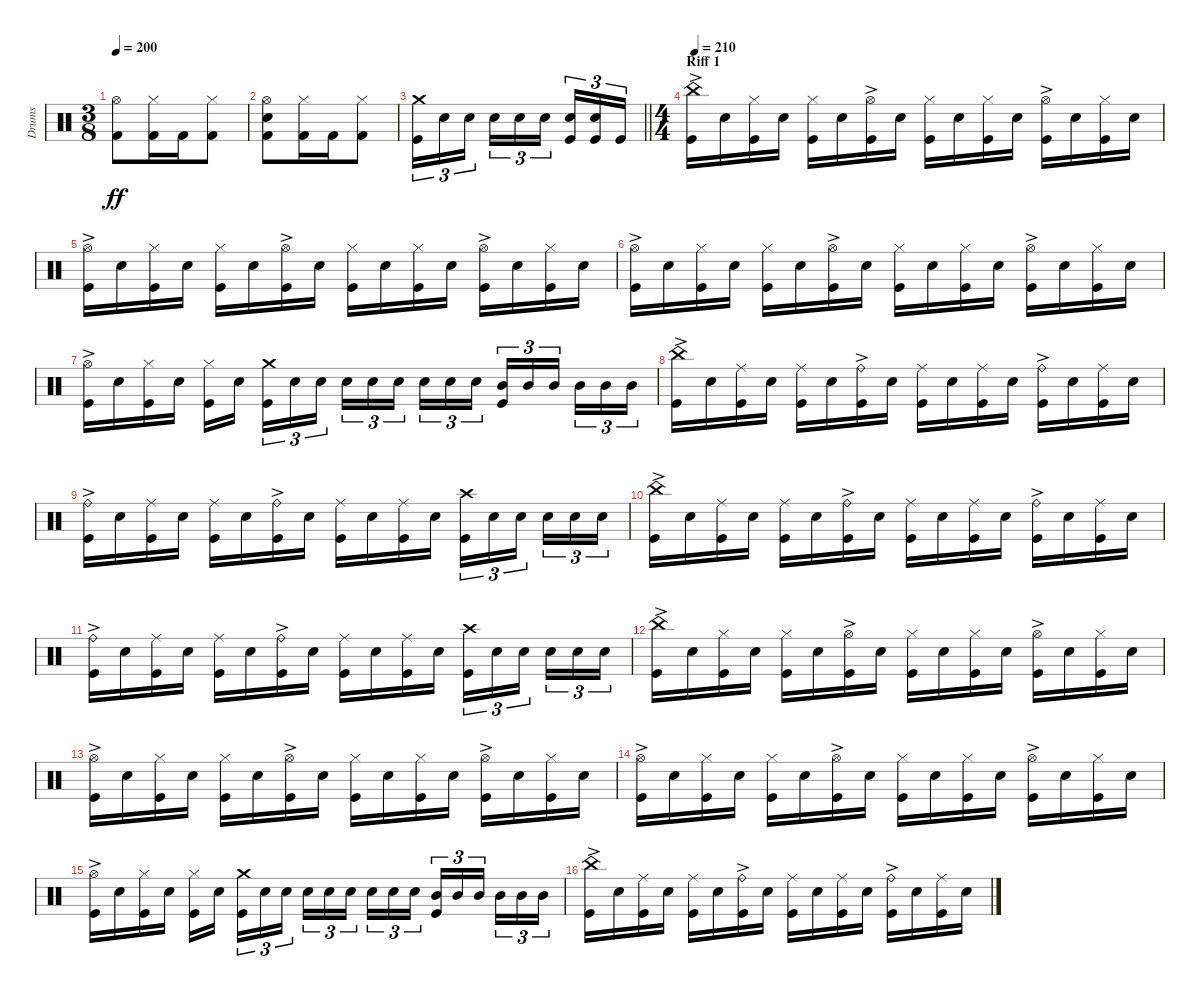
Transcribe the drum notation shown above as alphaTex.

\track ("Drums" "Drums") {instrument percussion}
\staff {score}
\articulation defaults
\ts (3 8)
\tempo 200
\clef neutral
\ks c
("Hi-Hat (open)" "Kick (hit) 2").8{dy ff} ("Hi-Hat (closed)" "Kick (hit) 2").16 "Kick (hit) 2".16 ("Hi-Hat (closed)" "Kick (hit) 2").8 |
("Hi-Hat (open)" "Electric Snare (hit)" "Kick (hit) 2").8 ("Hi-Hat (closed)" "Kick (hit) 2").16 "Kick (hit) 2".16 ("Hi-Hat (closed)" "Kick (hit) 2").8 |
\barLineRight lightlight
("Crash medium (hit)" "Kick (hit)").16{tu (3 2)} "Electric Snare (hit)".16{tu (3 2)} "Electric Snare (hit)".16{tu (3 2)} "Electric Snare (hit)".16{tu (3 2)} "Electric Snare (hit)".16{tu (3 2)} "Electric Snare (hit)".16{tu (3 2)} ("Electric Snare (hit)" "Kick (hit)").16{tu (3 2)} ("Electric Snare (hit)" "Kick (hit)").16{tu (3 2)} "Kick (hit)".16{tu (3 2)} |
\ts (4 4)
\section ("" "Riff 1")
\tempo 210
("China (hit)"{ac} "Kick (hit)").16 "Electric Snare (hit)".16 ("Hi-Hat (closed)" "Kick (hit)").16 "Electric Snare (hit)".16 ("Hi-Hat (closed)" "Kick (hit)").16 "Electric Snare (hit)".16 ("Hi-Hat (open)"{ac} "Kick (hit)").16 "Electric Snare (hit)".16 ("Hi-Hat (closed)" "Kick (hit)").16 "Electric Snare (hit)".16 ("Hi-Hat (closed)" "Kick (hit)").16 "Electric Snare (hit)".16 ("Hi-Hat (open)"{ac} "Kick (hit)").16 "Electric Snare (hit)".16 ("Hi-Hat (closed)" "Kick (hit)").16 "Electric Snare (hit)".16 |
("Hi-Hat (open)"{ac} "Kick (hit)").16 "Electric Snare (hit)".16 ("Hi-Hat (closed)" "Kick (hit)").16 "Electric Snare (hit)".16 ("Hi-Hat (closed)" "Kick (hit)").16 "Electric Snare (hit)".16 ("Hi-Hat (open)"{ac} "Kick (hit)").16 "Electric Snare (hit)".16 ("Hi-Hat (closed)" "Kick (hit)").16 "Electric Snare (hit)".16 ("Hi-Hat (closed)" "Kick (hit)").16 "Electric Snare (hit)".16 ("Hi-Hat (open)"{ac} "Kick (hit)").16 "Electric Snare (hit)".16 ("Hi-Hat (closed)" "Kick (hit)").16 "Electric Snare (hit)".16 |
("Hi-Hat (open)"{ac} "Kick (hit)").16 "Electric Snare (hit)".16 ("Hi-Hat (closed)" "Kick (hit)").16 "Electric Snare (hit)".16 ("Hi-Hat (closed)" "Kick (hit)").16 "Electric Snare (hit)".16 ("Hi-Hat (open)"{ac} "Kick (hit)").16 "Electric Snare (hit)".16 ("Hi-Hat (closed)" "Kick (hit)").16 "Electric Snare (hit)".16 ("Hi-Hat (closed)" "Kick (hit)").16 "Electric Snare (hit)".16 ("Hi-Hat (open)"{ac} "Kick (hit)").16 "Electric Snare (hit)".16 ("Hi-Hat (closed)" "Kick (hit)").16 "Electric Snare (hit)".16 |
("Hi-Hat (open)"{ac} "Kick (hit)").16 "Electric Snare (hit)".16 ("Hi-Hat (closed)" "Kick (hit)").16 "Electric Snare (hit)".16 ("Hi-Hat (closed)" "Kick (hit)").16 "Electric Snare (hit)".16{beam splitsecondary} ("Crash medium (hit)" "Kick (hit)").16{tu (3 2)} "Electric Snare (hit)".16{tu (3 2)} "Electric Snare (hit)".16{tu (3 2)} "Electric Snare (hit)".16{tu (3 2)} "Electric Snare (hit)".16{tu (3 2)} "Electric Snare (hit)".16{tu (3 2) beam splitsecondary} "Electric Snare (hit)".16{tu (3 2)} "Electric Snare (hit)".16{tu (3 2)} "Electric Snare (hit)".16{tu (3 2)} ("Mid Tom (hit)" "Kick (hit)").16{tu (3 2)} "Mid Tom (hit)".16{tu (3 2)} "Mid Tom (hit)".16{tu (3 2) beam splitsecondary} "Mid Tom (hit)".16{tu (3 2)} "Mid Tom (hit)".16{tu (3 2)} "Mid Tom (hit)".16{tu (3 2)} |
("China (hit)"{ac} "Kick (hit)").16 "Electric Snare (hit)".16 ("Ride (middle)" "Kick (hit)").16 "Electric Snare (hit)".16 ("Ride (middle)" "Kick (hit)").16 "Electric Snare (hit)".16 ("Ride (bell)"{ac} "Kick (hit)").16 "Electric Snare (hit)".16 ("Ride (middle)" "Kick (hit)").16 "Electric Snare (hit)".16 ("Ride (middle)" "Kick (hit)").16 "Electric Snare (hit)".16 ("Ride (bell)"{ac} "Kick (hit)").16 "Electric Snare (hit)".16 ("Ride (middle)" "Kick (hit)").16 "Electric Snare (hit)".16 |
("Ride (bell)"{ac} "Kick (hit)").16 "Electric Snare (hit)".16 ("Ride (middle)" "Kick (hit)").16 "Electric Snare (hit)".16 ("Ride (middle)" "Kick (hit)").16 "Electric Snare (hit)".16 ("Ride (bell)"{ac} "Kick (hit)").16 "Electric Snare (hit)".16 ("Ride (middle)" "Kick (hit)").16 "Electric Snare (hit)".16 ("Ride (middle)" "Kick (hit)").16 "Electric Snare (hit)".16 ("Crash high (hit)" "Kick (hit)").16{tu (3 2)} "Electric Snare (hit)".16{tu (3 2)} "Electric Snare (hit)".16{tu (3 2) beam splitsecondary} "Electric Snare (hit)".16{tu (3 2)} "Electric Snare (hit)".16{tu (3 2)} "Electric Snare (hit)".16{tu (3 2)} |
("China (hit)"{ac} "Kick (hit)").16 "Electric Snare (hit)".16 ("Ride (middle)" "Kick (hit)").16 "Electric Snare (hit)".16 ("Ride (middle)" "Kick (hit)").16 "Electric Snare (hit)".16 ("Ride (bell)"{ac} "Kick (hit)").16 "Electric Snare (hit)".16 ("Ride (middle)" "Kick (hit)").16 "Electric Snare (hit)".16 ("Ride (middle)" "Kick (hit)").16 "Electric Snare (hit)".16 ("Ride (bell)"{ac} "Kick (hit)").16 "Electric Snare (hit)".16 ("Ride (middle)" "Kick (hit)").16 "Electric Snare (hit)".16 |
("Ride (bell)"{ac} "Kick (hit)").16 "Electric Snare (hit)".16 ("Ride (middle)" "Kick (hit)").16 "Electric Snare (hit)".16 ("Ride (middle)" "Kick (hit)").16 "Electric Snare (hit)".16 ("Ride (bell)"{ac} "Kick (hit)").16 "Electric Snare (hit)".16 ("Ride (middle)" "Kick (hit)").16 "Electric Snare (hit)".16 ("Ride (middle)" "Kick (hit)").16 "Electric Snare (hit)".16 ("Crash high (hit)" "Kick (hit)").16{tu (3 2)} "Electric Snare (hit)".16{tu (3 2)} "Electric Snare (hit)".16{tu (3 2) beam splitsecondary} "Electric Snare (hit)".16{tu (3 2)} "Electric Snare (hit)".16{tu (3 2)} "Electric Snare (hit)".16{tu (3 2)} |
("China (hit)"{ac} "Kick (hit)").16 "Electric Snare (hit)".16 ("Hi-Hat (closed)" "Kick (hit)").16 "Electric Snare (hit)".16 ("Hi-Hat (closed)" "Kick (hit)").16 "Electric Snare (hit)".16 ("Hi-Hat (open)"{ac} "Kick (hit)").16 "Electric Snare (hit)".16 ("Hi-Hat (closed)" "Kick (hit)").16 "Electric Snare (hit)".16 ("Hi-Hat (closed)" "Kick (hit)").16 "Electric Snare (hit)".16 ("Hi-Hat (open)"{ac} "Kick (hit)").16 "Electric Snare (hit)".16 ("Hi-Hat (closed)" "Kick (hit)").16 "Electric Snare (hit)".16 |
("Hi-Hat (open)"{ac} "Kick (hit)").16 "Electric Snare (hit)".16 ("Hi-Hat (closed)" "Kick (hit)").16 "Electric Snare (hit)".16 ("Hi-Hat (closed)" "Kick (hit)").16 "Electric Snare (hit)".16 ("Hi-Hat (open)"{ac} "Kick (hit)").16 "Electric Snare (hit)".16 ("Hi-Hat (closed)" "Kick (hit)").16 "Electric Snare (hit)".16 ("Hi-Hat (closed)" "Kick (hit)").16 "Electric Snare (hit)".16 ("Hi-Hat (open)"{ac} "Kick (hit)").16 "Electric Snare (hit)".16 ("Hi-Hat (closed)" "Kick (hit)").16 "Electric Snare (hit)".16 |
("Hi-Hat (open)"{ac} "Kick (hit)").16 "Electric Snare (hit)".16 ("Hi-Hat (closed)" "Kick (hit)").16 "Electric Snare (hit)".16 ("Hi-Hat (closed)" "Kick (hit)").16 "Electric Snare (hit)".16 ("Hi-Hat (open)"{ac} "Kick (hit)").16 "Electric Snare (hit)".16 ("Hi-Hat (closed)" "Kick (hit)").16 "Electric Snare (hit)".16 ("Hi-Hat (closed)" "Kick (hit)").16 "Electric Snare (hit)".16 ("Hi-Hat (open)"{ac} "Kick (hit)").16 "Electric Snare (hit)".16 ("Hi-Hat (closed)" "Kick (hit)").16 "Electric Snare (hit)".16 |
("Hi-Hat (open)"{ac} "Kick (hit)").16 "Electric Snare (hit)".16 ("Hi-Hat (closed)" "Kick (hit)").16 "Electric Snare (hit)".16 ("Hi-Hat (closed)" "Kick (hit)").16 "Electric Snare (hit)".16{beam splitsecondary} ("Crash medium (hit)" "Kick (hit)").16{tu (3 2)} "Electric Snare (hit)".16{tu (3 2)} "Electric Snare (hit)".16{tu (3 2)} "Electric Snare (hit)".16{tu (3 2)} "Electric Snare (hit)".16{tu (3 2)} "Electric Snare (hit)".16{tu (3 2) beam splitsecondary} "Electric Snare (hit)".16{tu (3 2)} "Electric Snare (hit)".16{tu (3 2)} "Electric Snare (hit)".16{tu (3 2)} ("Mid Tom (hit)" "Kick (hit)").16{tu (3 2)} "Mid Tom (hit)".16{tu (3 2)} "Mid Tom (hit)".16{tu (3 2) beam splitsecondary} "Mid Tom (hit)".16{tu (3 2)} "Mid Tom (hit)".16{tu (3 2)} "Mid Tom (hit)".16{tu (3 2)} |
("China (hit)"{ac} "Kick (hit)").16 "Electric Snare (hit)".16 ("Ride (middle)" "Kick (hit)").16 "Electric Snare (hit)".16 ("Ride (middle)" "Kick (hit)").16 "Electric Snare (hit)".16 ("Ride (bell)"{ac} "Kick (hit)").16 "Electric Snare (hit)".16 ("Ride (middle)" "Kick (hit)").16 "Electric Snare (hit)".16 ("Ride (middle)" "Kick (hit)").16 "Electric Snare (hit)".16 ("Ride (bell)"{ac} "Kick (hit)").16 "Electric Snare (hit)".16 ("Ride (middle)" "Kick (hit)").16 "Electric Snare (hit)".16
